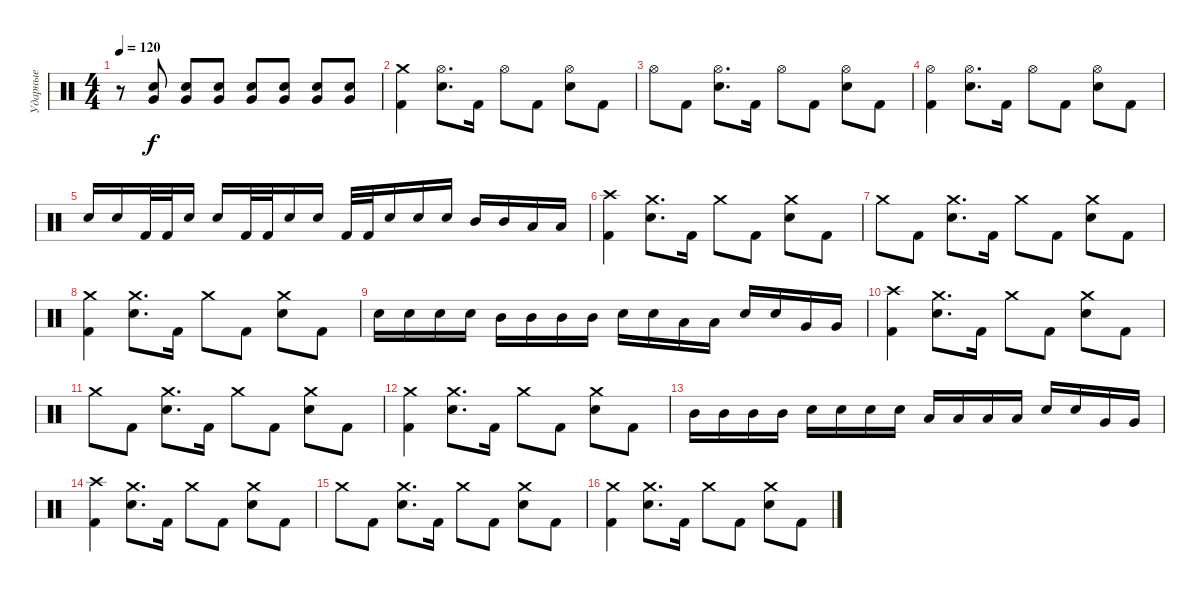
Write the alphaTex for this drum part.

\track ("Ударные" "Ударные") {instrument percussion}
\staff {score}
\articulation defaults
\ts (4 4)
\tempo 120
\clef neutral
\ks c
r.8{dy f volume 8} ("Electric Snare (hit)" "Very Low Tom (hit)").8{volume 16} ("Electric Snare (hit)" "Very Low Tom (hit)").8 ("Electric Snare (hit)" "Very Low Tom (hit)").8 ("Electric Snare (hit)" "Very Low Tom (hit)").8 ("Electric Snare (hit)" "Very Low Tom (hit)").8 ("Electric Snare (hit)" "Very Low Tom (hit)").8 ("Electric Snare (hit)" "Very Low Tom (hit)").8 |
("Crash medium (hit)" "Kick (hit) 2").4 ("Hi-Hat (open)" "Electric Snare (hit)").8{d} "Kick (hit) 2".16 "Hi-Hat (open)".8 "Kick (hit) 2".8 ("Hi-Hat (open)" "Electric Snare (hit)").8 "Kick (hit) 2".8 |
"Hi-Hat (open)".8 "Kick (hit) 2".8 ("Hi-Hat (open)" "Electric Snare (hit)").8{d} "Kick (hit) 2".16 "Hi-Hat (open)".8 "Kick (hit) 2".8 ("Hi-Hat (open)" "Electric Snare (hit)").8 "Kick (hit) 2".8 |
("Hi-Hat (open)" "Kick (hit) 2").4 ("Hi-Hat (open)" "Electric Snare (hit)").8{d} "Kick (hit) 2".16 "Hi-Hat (open)".8 "Kick (hit) 2".8 ("Hi-Hat (open)" "Electric Snare (hit)").8 "Kick (hit) 2".8 |
"Electric Snare (hit)".16 "Electric Snare (hit)".16 "Kick (hit) 2".32 "Kick (hit) 2".32 "Electric Snare (hit)".16 "Electric Snare (hit)".16 "Kick (hit) 2".32 "Kick (hit) 2".32 "Electric Snare (hit)".16 "Electric Snare (hit)".16 "Kick (hit) 2".32 "Kick (hit) 2".32 "Electric Snare (hit)".16 "Electric Snare (hit)".16 "Electric Snare (hit)".16 "Mid Tom (hit)".16 "Mid Tom (hit)".16 "Low Tom (hit)".16 "Low Tom (hit)".16 |
("Crash high (hit)" "Kick (hit) 2").4 ("Crash medium (hit)" "Electric Snare (hit)").8{d} "Kick (hit) 2".16 "Crash medium (hit)".8 "Kick (hit) 2".8 ("Crash medium (hit)" "Electric Snare (hit)").8 "Kick (hit) 2".8 |
"Crash medium (hit)".8 "Kick (hit) 2".8 ("Crash medium (hit)" "Electric Snare (hit)").8{d} "Kick (hit) 2".16 "Crash medium (hit)".8 "Kick (hit) 2".8 ("Crash medium (hit)" "Electric Snare (hit)").8 "Kick (hit) 2".8 |
("Crash medium (hit)" "Kick (hit) 2").4 ("Crash medium (hit)" "Electric Snare (hit)").8{d} "Kick (hit) 2".16 "Crash medium (hit)".8 "Kick (hit) 2".8 ("Crash medium (hit)" "Electric Snare (hit)").8 "Kick (hit) 2".8 |
"Electric Snare (hit)".16 "Electric Snare (hit)".16 "Electric Snare (hit)".16 "Electric Snare (hit)".16 "Mid Tom (hit)".16 "Mid Tom (hit)".16 "Mid Tom (hit)".16 "Mid Tom (hit)".16 "Electric Snare (hit)".16 "Electric Snare (hit)".16 "Low Tom (hit)".16 "Low Tom (hit)".16 "Electric Snare (hit)".16 "Electric Snare (hit)".16 "Very Low Tom (hit)".16 "Very Low Tom (hit)".16 |
("Crash high (hit)" "Kick (hit) 2").4 ("Crash medium (hit)" "Electric Snare (hit)").8{d} "Kick (hit) 2".16 "Crash medium (hit)".8 "Kick (hit) 2".8 ("Crash medium (hit)" "Electric Snare (hit)").8 "Kick (hit) 2".8 |
"Crash medium (hit)".8 "Kick (hit) 2".8 ("Crash medium (hit)" "Electric Snare (hit)").8{d} "Kick (hit) 2".16 "Crash medium (hit)".8 "Kick (hit) 2".8 ("Crash medium (hit)" "Electric Snare (hit)").8 "Kick (hit) 2".8 |
("Crash medium (hit)" "Kick (hit) 2").4 ("Crash medium (hit)" "Electric Snare (hit)").8{d} "Kick (hit) 2".16 "Crash medium (hit)".8 "Kick (hit) 2".8 ("Crash medium (hit)" "Electric Snare (hit)").8 "Kick (hit) 2".8 |
"Mid Tom (hit)".16 "Mid Tom (hit)".16 "Mid Tom (hit)".16 "Mid Tom (hit)".16 "Electric Snare (hit)".16 "Electric Snare (hit)".16 "Electric Snare (hit)".16 "Electric Snare (hit)".16 "Low Tom (hit)".16 "Low Tom (hit)".16 "Low Tom (hit)".16 "Low Tom (hit)".16 "Electric Snare (hit)".16 "Electric Snare (hit)".16 "Very Low Tom (hit)".16 "Very Low Tom (hit)".16 |
("Crash high (hit)" "Kick (hit) 2").4{volume 8} ("Crash medium (hit)" "Electric Snare (hit)").8{d} "Kick (hit) 2".16 "Crash medium (hit)".8 "Kick (hit) 2".8 ("Crash medium (hit)" "Electric Snare (hit)").8 "Kick (hit) 2".8 |
"Crash medium (hit)".8 "Kick (hit) 2".8 ("Crash medium (hit)" "Electric Snare (hit)").8{d} "Kick (hit) 2".16 "Crash medium (hit)".8 "Kick (hit) 2".8 ("Crash medium (hit)" "Electric Snare (hit)").8 "Kick (hit) 2".8 |
("Crash medium (hit)" "Kick (hit) 2").4 ("Crash medium (hit)" "Electric Snare (hit)").8{d} "Kick (hit) 2".16 "Crash medium (hit)".8 "Kick (hit) 2".8 ("Crash medium (hit)" "Electric Snare (hit)").8 "Kick (hit) 2".8
